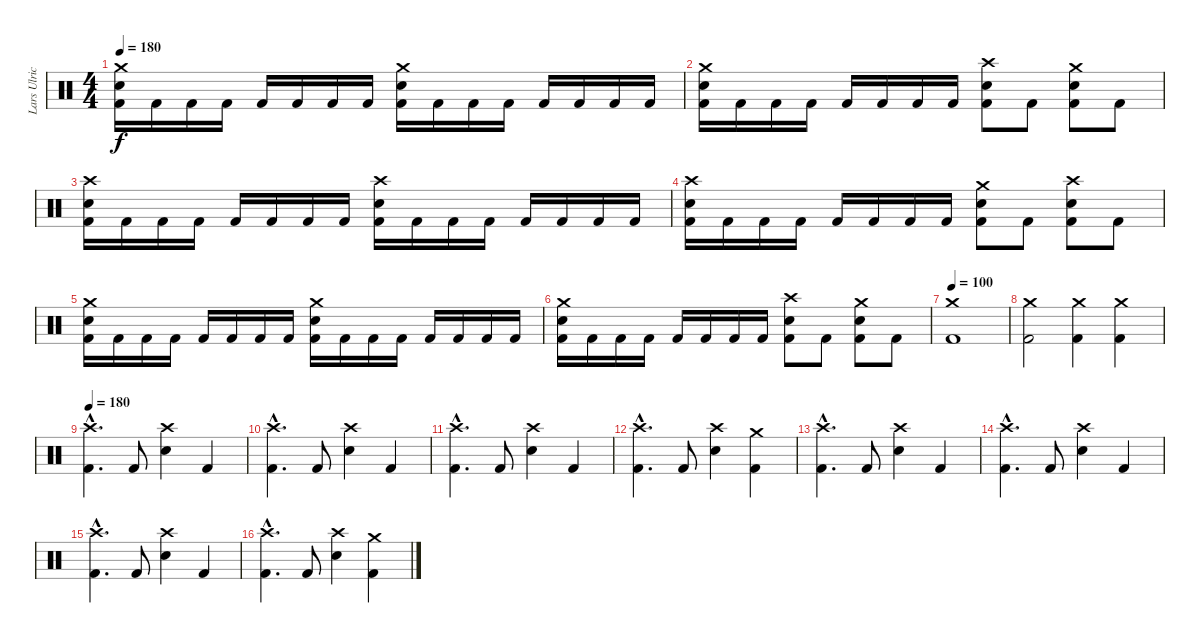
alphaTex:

\track ("Lars Ulrich" "Lars Ulric") {instrument percussion}
\staff {score}
\articulation defaults
\ts (4 4)
\tempo 180
\clef neutral
\ks c
("Crash medium (hit)" "Electric Snare (hit)" "Kick (hit) 2").16{dy f} "Kick (hit) 2".16 "Kick (hit) 2".16 "Kick (hit) 2".16 "Kick (hit) 2".16 "Kick (hit) 2".16 "Kick (hit) 2".16 "Kick (hit) 2".16 ("Crash medium (hit)" "Electric Snare (hit)" "Kick (hit) 2").16 "Kick (hit) 2".16 "Kick (hit) 2".16 "Kick (hit) 2".16 "Kick (hit) 2".16 "Kick (hit) 2".16 "Kick (hit) 2".16 "Kick (hit) 2".16 |
("Crash medium (hit)" "Electric Snare (hit)" "Kick (hit) 2").16 "Kick (hit) 2".16 "Kick (hit) 2".16 "Kick (hit) 2".16 "Kick (hit) 2".16 "Kick (hit) 2".16 "Kick (hit) 2".16 "Kick (hit) 2".16 ("Crash high (hit)" "Electric Snare (hit)" "Kick (hit) 2").8 "Kick (hit) 2".8 ("Crash medium (hit)" "Electric Snare (hit)" "Kick (hit) 2").8 "Kick (hit) 2".8 |
("Crash high (hit)" "Electric Snare (hit)" "Kick (hit) 2").16 "Kick (hit) 2".16 "Kick (hit) 2".16 "Kick (hit) 2".16 "Kick (hit) 2".16 "Kick (hit) 2".16 "Kick (hit) 2".16 "Kick (hit) 2".16 ("Crash high (hit)" "Electric Snare (hit)" "Kick (hit) 2").16 "Kick (hit) 2".16 "Kick (hit) 2".16 "Kick (hit) 2".16 "Kick (hit) 2".16 "Kick (hit) 2".16 "Kick (hit) 2".16 "Kick (hit) 2".16 |
("Crash high (hit)" "Electric Snare (hit)" "Kick (hit) 2").16 "Kick (hit) 2".16 "Kick (hit) 2".16 "Kick (hit) 2".16 "Kick (hit) 2".16 "Kick (hit) 2".16 "Kick (hit) 2".16 "Kick (hit) 2".16 ("Crash medium (hit)" "Electric Snare (hit)" "Kick (hit) 2").8 "Kick (hit) 2".8 ("Crash high (hit)" "Electric Snare (hit)" "Kick (hit) 2").8 "Kick (hit) 2".8 |
("Crash medium (hit)" "Electric Snare (hit)" "Kick (hit) 2").16 "Kick (hit) 2".16 "Kick (hit) 2".16 "Kick (hit) 2".16 "Kick (hit) 2".16 "Kick (hit) 2".16 "Kick (hit) 2".16 "Kick (hit) 2".16 ("Crash medium (hit)" "Electric Snare (hit)" "Kick (hit) 2").16 "Kick (hit) 2".16 "Kick (hit) 2".16 "Kick (hit) 2".16 "Kick (hit) 2".16 "Kick (hit) 2".16 "Kick (hit) 2".16 "Kick (hit) 2".16 |
("Crash medium (hit)" "Electric Snare (hit)" "Kick (hit) 2").16 "Kick (hit) 2".16 "Kick (hit) 2".16 "Kick (hit) 2".16 "Kick (hit) 2".16 "Kick (hit) 2".16 "Kick (hit) 2".16 "Kick (hit) 2".16 ("Crash high (hit)" "Electric Snare (hit)" "Kick (hit) 2").8 "Kick (hit) 2".8 ("Crash medium (hit)" "Electric Snare (hit)" "Kick (hit) 2").8 "Kick (hit) 2".8 |
\tempo 100
("Crash medium (hit)" "Kick (hit) 2").1 |
("Crash medium (hit)" "Kick (hit) 2").2 ("Crash medium (hit)" "Kick (hit) 2").4 ("Crash medium (hit)" "Kick (hit) 2").4 |
\tempo 180
("Crash high (hit)"{hac} "Kick (hit) 2"{hac}).4{d} "Kick (hit) 2".8 ("Crash high (hit)" "Electric Snare (hit)").4 "Kick (hit) 2".4 |
("Crash high (hit)"{hac} "Kick (hit) 2"{hac}).4{d} "Kick (hit) 2".8 ("Crash high (hit)" "Electric Snare (hit)").4 "Kick (hit) 2".4 |
("Crash high (hit)"{hac} "Kick (hit) 2"{hac}).4{d} "Kick (hit) 2".8 ("Crash high (hit)" "Electric Snare (hit)").4 "Kick (hit) 2".4 |
("Crash high (hit)"{hac} "Kick (hit) 2"{hac}).4{d} "Kick (hit) 2".8 ("Crash high (hit)" "Electric Snare (hit)").4 ("Crash medium (hit)" "Kick (hit) 2").4 |
("Crash high (hit)"{hac} "Kick (hit) 2"{hac}).4{d} "Kick (hit) 2".8 ("Crash high (hit)" "Electric Snare (hit)").4 "Kick (hit) 2".4 |
("Crash high (hit)"{hac} "Kick (hit) 2"{hac}).4{d} "Kick (hit) 2".8 ("Crash high (hit)" "Electric Snare (hit)").4 "Kick (hit) 2".4 |
("Crash high (hit)"{hac} "Kick (hit) 2"{hac}).4{d} "Kick (hit) 2".8 ("Crash high (hit)" "Electric Snare (hit)").4 "Kick (hit) 2".4 |
("Crash high (hit)"{hac} "Kick (hit) 2"{hac}).4{d} "Kick (hit) 2".8 ("Crash high (hit)" "Electric Snare (hit)").4 ("Crash medium (hit)" "Kick (hit) 2").4
